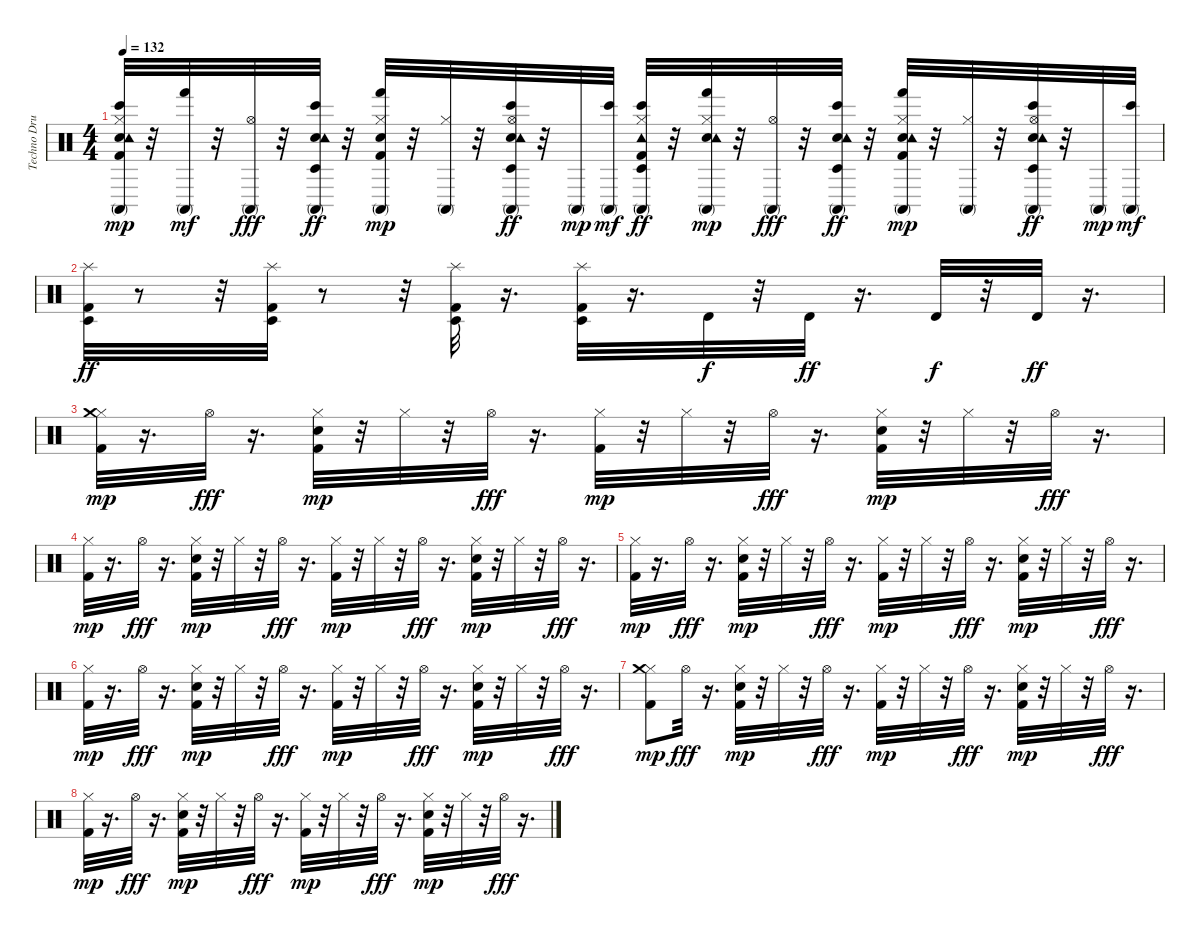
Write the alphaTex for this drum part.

\track ("Techno Drums" "Techno Dru") {instrument percussion}
\staff {score}
\articulation defaults
\ts (4 4)
\tempo 132
\clef neutral
\ks c
("Kick (hit) 2" "Hand Clap (hit)" "Tambourine (hit)" "Conga high (mute)" "Bongo High (hit)" "Hi-Hat (closed)").32{dy mp} r.32 ("Conga high (mute)" "Hand (hit)").32{dy mf} r.32 ("Conga high (mute)" "Hi-Hat (open)").32{dy fff} r.32 ("Hand Clap (hit)" "Tambourine (hit)" "Conga high (mute)" "Bongo High (hit)" "Timbale low (hit)").32{dy ff} r.32 ("Kick (hit) 2" "Hand Clap (hit)" "Conga high (mute)" "Hand (hit)" "Hi-Hat (closed)").32{dy mp} r.32 ("Conga high (mute)" "Hi-Hat (closed)").32 r.32 ("Hand Clap (hit)" "Tambourine (hit)" "Conga high (mute)" "Bongo High (hit)" "Hi-Hat (open)" "Timbale low (hit)").32{dy ff} r.32 "Conga high (mute)".32{dy mp} ("Conga high (mute)" "Bongo High (hit)").32{dy mf} ("Kick (hit) 2" "Tambourine (hit)" "Conga high (mute)" "Bongo High (hit)" "Hi-Hat (closed)" "Timbale low (hit)").32{dy ff} r.32 ("Hand Clap (hit)" "Tambourine (hit)" "Conga high (mute)" "Hand (hit)" "Hi-Hat (closed)").32{dy mp} r.32 ("Conga high (mute)" "Hi-Hat (open)").32{dy fff} r.32 ("Hand Clap (hit)" "Tambourine (hit)" "Conga high (mute)" "Bongo High (hit)" "Timbale low (hit)").32{dy ff} r.32 ("Kick (hit) 2" "Hand Clap (hit)" "Tambourine (hit)" "Conga high (mute)" "Hand (hit)" "Hi-Hat (closed)").32{dy mp} r.32 ("Conga high (mute)" "Hi-Hat (closed)").32 r.32 ("Hand Clap (hit)" "Tambourine (hit)" "Conga high (mute)" "Bongo High (hit)" "Hi-Hat (open)" "Timbale low (hit)").32{dy ff} r.32 "Conga high (mute)".32{dy mp} ("Conga high (mute)" "Bongo High (hit)").32{dy mf} |
("Kick (hit) 2" "Timbale low (hit)" "Splash (hit)").32{dy ff} r.8 r.32 ("Kick (hit) 2" "Timbale low (hit)" "Splash (hit)").32 r.8 r.32 ("Kick (hit) 2" "Timbale low (hit)" "Splash (hit)").32 r.16{d} ("Timbale low (hit)" "Splash (hit)" "Kick (hit) 2").32 r.16{d} "Timbale high (hit)".32{dy f} r.32 "Timbale high (hit)".32{dy ff} r.16{d} "Timbale high (hit)".32{dy f} r.32 "Timbale high (hit)".32{dy ff} r.16{d} |
("Kick (hit) 2" "Hi-Hat (closed)" "Crash medium (hit)").32{dy mp} r.16{d} "Hi-Hat (open)".32{dy fff} r.16{d} ("Kick (hit) 2" "Hand Clap (hit)" "Hi-Hat (closed)").32{dy mp} r.32 "Hi-Hat (closed)".32 r.32 "Hi-Hat (open)".32{dy fff} r.16{d} ("Kick (hit) 2" "Hi-Hat (closed)").32{dy mp} r.32 "Hi-Hat (closed)".32 r.32 "Hi-Hat (open)".32{dy fff} r.16{d} ("Kick (hit) 2" "Hand Clap (hit)" "Hi-Hat (closed)").32{dy mp} r.32 "Hi-Hat (closed)".32 r.32 "Hi-Hat (open)".32{dy fff} r.16{d} |
("Kick (hit) 2" "Hi-Hat (closed)").32{dy mp} r.16{d} "Hi-Hat (open)".32{dy fff} r.16{d} ("Kick (hit) 2" "Hand Clap (hit)" "Hi-Hat (closed)").32{dy mp} r.32 "Hi-Hat (closed)".32 r.32 "Hi-Hat (open)".32{dy fff} r.16{d} ("Kick (hit) 2" "Hi-Hat (closed)").32{dy mp} r.32 "Hi-Hat (closed)".32 r.32 "Hi-Hat (open)".32{dy fff} r.16{d} ("Kick (hit) 2" "Hand Clap (hit)" "Hi-Hat (closed)").32{dy mp} r.32 "Hi-Hat (closed)".32 r.32 "Hi-Hat (open)".32{dy fff} r.16{d} |
("Kick (hit) 2" "Hi-Hat (closed)").32{dy mp} r.16{d} "Hi-Hat (open)".32{dy fff} r.16{d} ("Kick (hit) 2" "Hand Clap (hit)" "Hi-Hat (closed)").32{dy mp} r.32 "Hi-Hat (closed)".32 r.32 "Hi-Hat (open)".32{dy fff} r.16{d} ("Kick (hit) 2" "Hi-Hat (closed)").32{dy mp} r.32 "Hi-Hat (closed)".32 r.32 "Hi-Hat (open)".32{dy fff} r.16{d} ("Kick (hit) 2" "Hand Clap (hit)" "Hi-Hat (closed)").32{dy mp} r.32 "Hi-Hat (closed)".32 r.32 "Hi-Hat (open)".32{dy fff} r.16{d} |
("Kick (hit) 2" "Hi-Hat (closed)").32{dy mp} r.16{d} "Hi-Hat (open)".32{dy fff} r.16{d} ("Kick (hit) 2" "Hand Clap (hit)" "Hi-Hat (closed)").32{dy mp} r.32 "Hi-Hat (closed)".32 r.32 "Hi-Hat (open)".32{dy fff} r.16{d} ("Kick (hit) 2" "Hi-Hat (closed)").32{dy mp} r.32 "Hi-Hat (closed)".32 r.32 "Hi-Hat (open)".32{dy fff} r.16{d} ("Kick (hit) 2" "Hand Clap (hit)" "Hi-Hat (closed)").32{dy mp} r.32 "Hi-Hat (closed)".32 r.32 "Hi-Hat (open)".32{dy fff} r.16{d} |
("Kick (hit) 2" "Hi-Hat (closed)" "Crash medium (hit)").8{dy mp} "Hi-Hat (open)".32{dy fff} r.16{d} ("Kick (hit) 2" "Hand Clap (hit)" "Hi-Hat (closed)").32{dy mp} r.32 "Hi-Hat (closed)".32 r.32 "Hi-Hat (open)".32{dy fff} r.16{d} ("Kick (hit) 2" "Hi-Hat (closed)").32{dy mp} r.32 "Hi-Hat (closed)".32 r.32 "Hi-Hat (open)".32{dy fff} r.16{d} ("Kick (hit) 2" "Hand Clap (hit)" "Hi-Hat (closed)").32{dy mp} r.32 "Hi-Hat (closed)".32 r.32 "Hi-Hat (open)".32{dy fff} r.16{d} |
("Kick (hit) 2" "Hi-Hat (closed)").32{dy mp} r.16{d} "Hi-Hat (open)".32{dy fff} r.16{d} ("Kick (hit) 2" "Hand Clap (hit)" "Hi-Hat (closed)").32{dy mp} r.32 "Hi-Hat (closed)".32 r.32 "Hi-Hat (open)".32{dy fff} r.16{d} ("Kick (hit) 2" "Hi-Hat (closed)").32{dy mp} r.32 "Hi-Hat (closed)".32 r.32 "Hi-Hat (open)".32{dy fff} r.16{d} ("Kick (hit) 2" "Hand Clap (hit)" "Hi-Hat (closed)").32{dy mp} r.32 "Hi-Hat (closed)".32 r.32 "Hi-Hat (open)".32{dy fff} r.16{d}
